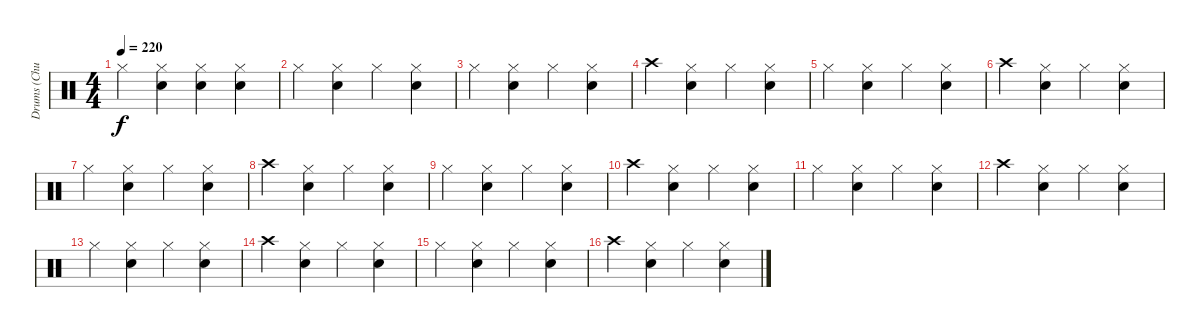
\track ("Drums (Chuck Behler)" "Drums (Chu") {instrument percussion}
\staff {score}
\articulation defaults
\ts (4 4)
\tempo 220
\clef neutral
\ks c "Hi-Hat (closed)".4{dy f}
("Hi-Hat (closed)" "Snare (hit) 2").4 ("Hi-Hat (closed)" "Snare (hit) 2").4 ("Hi-Hat (closed)" "Snare (hit) 2").4 |
"Hi-Hat (closed)".4 ("Hi-Hat (closed)" "Snare (hit) 2").4 "Hi-Hat (closed)".4 ("Hi-Hat (closed)" "Snare (hit) 2").4 |
"Hi-Hat (closed)".4 ("Hi-Hat (closed)" "Snare (hit) 2").4 "Hi-Hat (closed)".4 ("Hi-Hat (closed)" "Snare (hit) 2").4 |
"Crash high (hit)".4 ("Hi-Hat (closed)" "Snare (hit) 2").4 "Hi-Hat (closed)".4 ("Hi-Hat (closed)" "Snare (hit) 2").4 |
"Hi-Hat (closed)".4 ("Hi-Hat (closed)" "Snare (hit) 2").4 "Hi-Hat (closed)".4 ("Hi-Hat (closed)" "Snare (hit) 2").4 |
"Crash high (hit)".4 ("Hi-Hat (closed)" "Snare (hit) 2").4 "Hi-Hat (closed)".4 ("Hi-Hat (closed)" "Snare (hit) 2").4 |
"Hi-Hat (closed)".4 ("Hi-Hat (closed)" "Snare (hit) 2").4 "Hi-Hat (closed)".4 ("Hi-Hat (closed)" "Snare (hit) 2").4 |
"Crash high (hit)".4 ("Hi-Hat (closed)" "Snare (hit) 2").4 "Hi-Hat (closed)".4 ("Hi-Hat (closed)" "Snare (hit) 2").4 |
"Hi-Hat (closed)".4 ("Hi-Hat (closed)" "Snare (hit) 2").4 "Hi-Hat (closed)".4 ("Hi-Hat (closed)" "Snare (hit) 2").4 |
"Crash high (hit)".4 ("Hi-Hat (closed)" "Snare (hit) 2").4 "Hi-Hat (closed)".4 ("Hi-Hat (closed)" "Snare (hit) 2").4 |
"Hi-Hat (closed)".4 ("Hi-Hat (closed)" "Snare (hit) 2").4 "Hi-Hat (closed)".4 ("Hi-Hat (closed)" "Snare (hit) 2").4 |
"Crash high (hit)".4 ("Hi-Hat (closed)" "Snare (hit) 2").4 "Hi-Hat (closed)".4 ("Hi-Hat (closed)" "Snare (hit) 2").4 |
"Hi-Hat (closed)".4 ("Hi-Hat (closed)" "Snare (hit) 2").4 "Hi-Hat (closed)".4 ("Hi-Hat (closed)" "Snare (hit) 2").4 |
"Crash high (hit)".4 ("Hi-Hat (closed)" "Snare (hit) 2").4 "Hi-Hat (closed)".4 ("Hi-Hat (closed)" "Snare (hit) 2").4 |
"Hi-Hat (closed)".4 ("Hi-Hat (closed)" "Snare (hit) 2").4 "Hi-Hat (closed)".4 ("Hi-Hat (closed)" "Snare (hit) 2").4 |
"Crash high (hit)".4 ("Hi-Hat (closed)" "Snare (hit) 2").4 "Hi-Hat (closed)".4 ("Hi-Hat (closed)" "Snare (hit) 2").4
